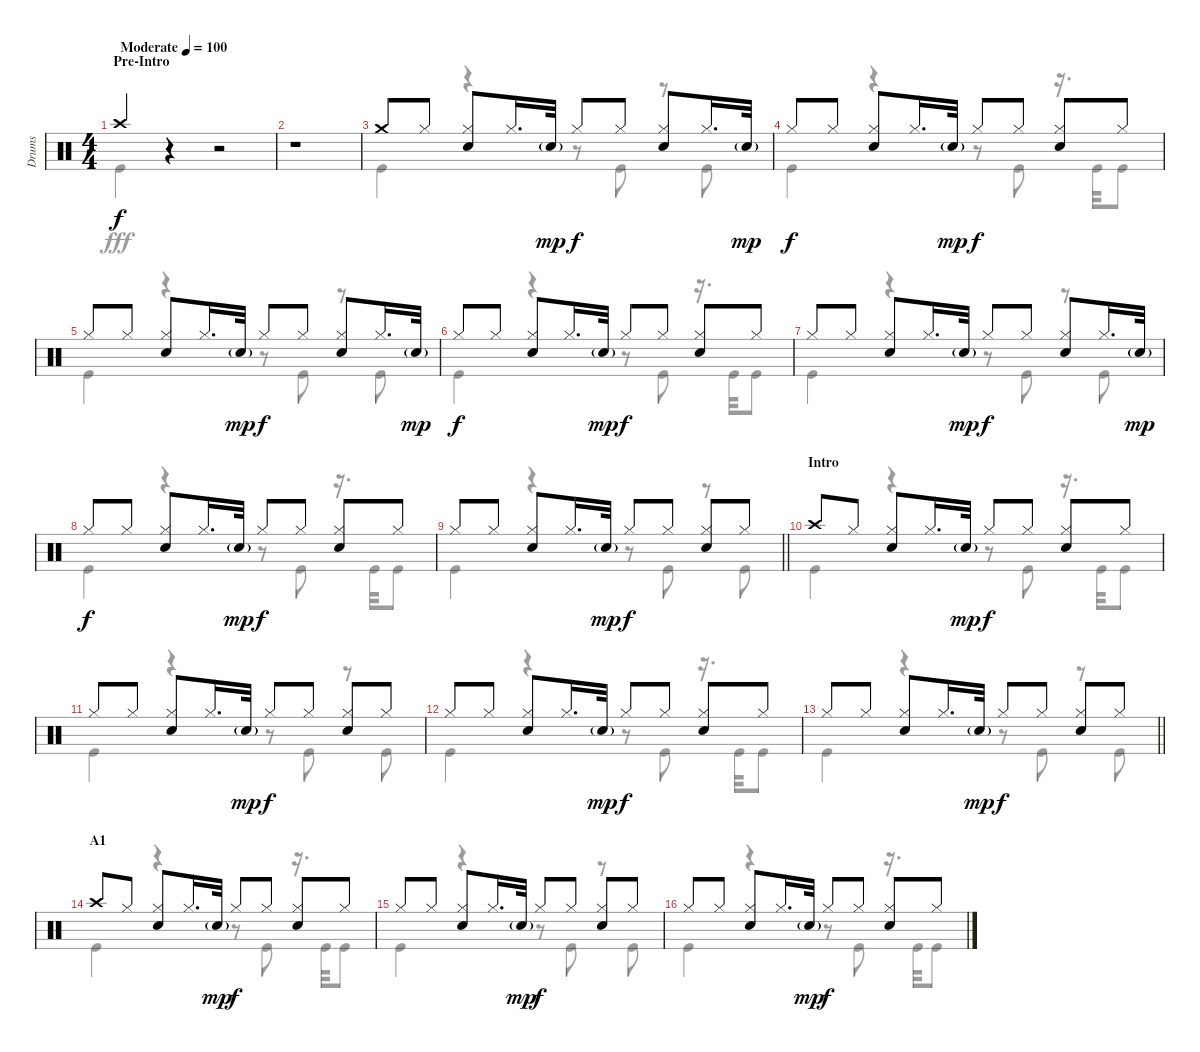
\track ("Drums" "Drums") {instrument percussion}
\staff {score}
\articulation defaults
\voice
\ts (4 4)
\section ("" "Pre-Intro")
\tempo (100 "Moderate")
\clef neutral
\ks c "Crash high (hit)".4{dy f}
r.4 r.2 |
r.1 |
"Crash medium (hit)".8 "Hi-Hat (closed)".8 ("Hi-Hat (closed)" "Snare (hit) 2").8 "Hi-Hat (closed)".16{d} "Snare (hit) 2"{g}.32{dy mp} "Hi-Hat (closed)".8{dy f} "Hi-Hat (closed)".8 ("Hi-Hat (closed)" "Snare (hit) 2").8 "Hi-Hat (closed)".16{d} "Snare (hit) 2"{g}.32{dy mp} |
"Hi-Hat (closed)".8{dy f} "Hi-Hat (closed)".8 ("Hi-Hat (closed)" "Snare (hit) 2").8 "Hi-Hat (closed)".16{d} "Snare (hit) 2"{g}.32{dy mp} "Hi-Hat (closed)".8{dy f} "Hi-Hat (closed)".8 ("Hi-Hat (closed)" "Snare (hit) 2").8 "Hi-Hat (closed)".8 |
"Hi-Hat (closed)".8 "Hi-Hat (closed)".8 ("Hi-Hat (closed)" "Snare (hit) 2").8 "Hi-Hat (closed)".16{d} "Snare (hit) 2"{g}.32{dy mp} "Hi-Hat (closed)".8{dy f} "Hi-Hat (closed)".8 ("Hi-Hat (closed)" "Snare (hit) 2").8 "Hi-Hat (closed)".16{d} "Snare (hit) 2"{g}.32{dy mp} |
"Hi-Hat (closed)".8{dy f} "Hi-Hat (closed)".8 ("Hi-Hat (closed)" "Snare (hit) 2").8 "Hi-Hat (closed)".16{d} "Snare (hit) 2"{g}.32{dy mp} "Hi-Hat (closed)".8{dy f} "Hi-Hat (closed)".8 ("Hi-Hat (closed)" "Snare (hit) 2").8 "Hi-Hat (closed)".8 |
"Hi-Hat (closed)".8 "Hi-Hat (closed)".8 ("Hi-Hat (closed)" "Snare (hit) 2").8 "Hi-Hat (closed)".16{d} "Snare (hit) 2"{g}.32{dy mp} "Hi-Hat (closed)".8{dy f} "Hi-Hat (closed)".8 ("Hi-Hat (closed)" "Snare (hit) 2").8 "Hi-Hat (closed)".16{d} "Snare (hit) 2"{g}.32{dy mp} |
"Hi-Hat (closed)".8{dy f} "Hi-Hat (closed)".8 ("Hi-Hat (closed)" "Snare (hit) 2").8 "Hi-Hat (closed)".16{d} "Snare (hit) 2"{g}.32{dy mp} "Hi-Hat (closed)".8{dy f} "Hi-Hat (closed)".8 ("Hi-Hat (closed)" "Snare (hit) 2").8 "Hi-Hat (closed)".8 |
\barLineRight lightlight "Hi-Hat (closed)".8 "Hi-Hat (closed)".8
("Hi-Hat (closed)" "Snare (hit) 2").8 "Hi-Hat (closed)".16{d} "Snare (hit) 2"{g}.32{dy mp} "Hi-Hat (closed)".8{dy f} "Hi-Hat (closed)".8 ("Hi-Hat (closed)" "Snare (hit) 2").8 "Hi-Hat (closed)".8 |
\section ("" "Intro")
"Crash high (hit)".8 "Hi-Hat (closed)".8 ("Hi-Hat (closed)" "Snare (hit) 2").8 "Hi-Hat (closed)".16{d} "Snare (hit) 2"{g}.32{dy mp} "Hi-Hat (closed)".8{dy f} "Hi-Hat (closed)".8 ("Hi-Hat (closed)" "Snare (hit) 2").8 "Hi-Hat (closed)".8 |
"Hi-Hat (closed)".8 "Hi-Hat (closed)".8 ("Hi-Hat (closed)" "Snare (hit) 2").8 "Hi-Hat (closed)".16{d} "Snare (hit) 2"{g}.32{dy mp} "Hi-Hat (closed)".8{dy f} "Hi-Hat (closed)".8 ("Hi-Hat (closed)" "Snare (hit) 2").8 "Hi-Hat (closed)".8 |
"Hi-Hat (closed)".8 "Hi-Hat (closed)".8 ("Hi-Hat (closed)" "Snare (hit) 2").8 "Hi-Hat (closed)".16{d} "Snare (hit) 2"{g}.32{dy mp} "Hi-Hat (closed)".8{dy f} "Hi-Hat (closed)".8 ("Hi-Hat (closed)" "Snare (hit) 2").8 "Hi-Hat (closed)".8 |
\barLineRight lightlight "Hi-Hat (closed)".8 "Hi-Hat (closed)".8
("Hi-Hat (closed)" "Snare (hit) 2").8 "Hi-Hat (closed)".16{d} "Snare (hit) 2"{g}.32{dy mp} "Hi-Hat (closed)".8{dy f} "Hi-Hat (closed)".8 ("Hi-Hat (closed)" "Snare (hit) 2").8 "Hi-Hat (closed)".8 |
\section ("" "A1")
"Crash high (hit)".8 "Hi-Hat (closed)".8 ("Hi-Hat (closed)" "Snare (hit) 2").8 "Hi-Hat (closed)".16{d} "Snare (hit) 2"{g}.32{dy mp} "Hi-Hat (closed)".8{dy f} "Hi-Hat (closed)".8 ("Hi-Hat (closed)" "Snare (hit) 2").8 "Hi-Hat (closed)".8 |
"Hi-Hat (closed)".8 "Hi-Hat (closed)".8 ("Hi-Hat (closed)" "Snare (hit) 2").8 "Hi-Hat (closed)".16{d} "Snare (hit) 2"{g}.32{dy mp} "Hi-Hat (closed)".8{dy f} "Hi-Hat (closed)".8 ("Hi-Hat (closed)" "Snare (hit) 2").8 "Hi-Hat (closed)".8 |
"Hi-Hat (closed)".8 "Hi-Hat (closed)".8 ("Hi-Hat (closed)" "Snare (hit) 2").8 "Hi-Hat (closed)".16{d} "Snare (hit) 2"{g}.32{dy mp} "Hi-Hat (closed)".8{dy f} "Hi-Hat (closed)".8 ("Hi-Hat (closed)" "Snare (hit) 2").8 "Hi-Hat (closed)".8
\voice
\clef neutral
\ottava regular
\simile none
\ks c "Kick (hit)".4{dy fff}
r.4 r.2 |
r.1 |
"Kick (hit)".4 r.4 r.8 "Kick (hit)".8 r.8 "Kick (hit)".8 |
"Kick (hit)".4 r.4 r.8 "Kick (hit)".8 r.16{d} "Kick (hit)".32 "Kick (hit)".8 |
"Kick (hit)".4 r.4 r.8 "Kick (hit)".8 r.8 "Kick (hit)".8 |
"Kick (hit)".4 r.4 r.8 "Kick (hit)".8 r.16{d} "Kick (hit)".32 "Kick (hit)".8 |
"Kick (hit)".4 r.4 r.8 "Kick (hit)".8 r.8 "Kick (hit)".8 |
"Kick (hit)".4 r.4 r.8 "Kick (hit)".8 r.16{d} "Kick (hit)".32 "Kick (hit)".8 |
\barLineRight lightlight "Kick (hit)".4
r.4 r.8 "Kick (hit)".8 r.8 "Kick (hit)".8 |
"Kick (hit)".4 r.4 r.8 "Kick (hit)".8 r.16{d} "Kick (hit)".32 "Kick (hit)".8 |
"Kick (hit)".4 r.4 r.8 "Kick (hit)".8 r.8 "Kick (hit)".8 |
"Kick (hit)".4 r.4 r.8 "Kick (hit)".8 r.16{d} "Kick (hit)".32 "Kick (hit)".8 |
\barLineRight lightlight "Kick (hit)".4
r.4 r.8 "Kick (hit)".8 r.8 "Kick (hit)".8 |
"Kick (hit)".4 r.4 r.8 "Kick (hit)".8 r.16{d} "Kick (hit)".32 "Kick (hit)".8 |
"Kick (hit)".4 r.4 r.8 "Kick (hit)".8 r.8 "Kick (hit)".8 |
"Kick (hit)".4 r.4 r.8 "Kick (hit)".8 r.16{d} "Kick (hit)".32 "Kick (hit)".8
